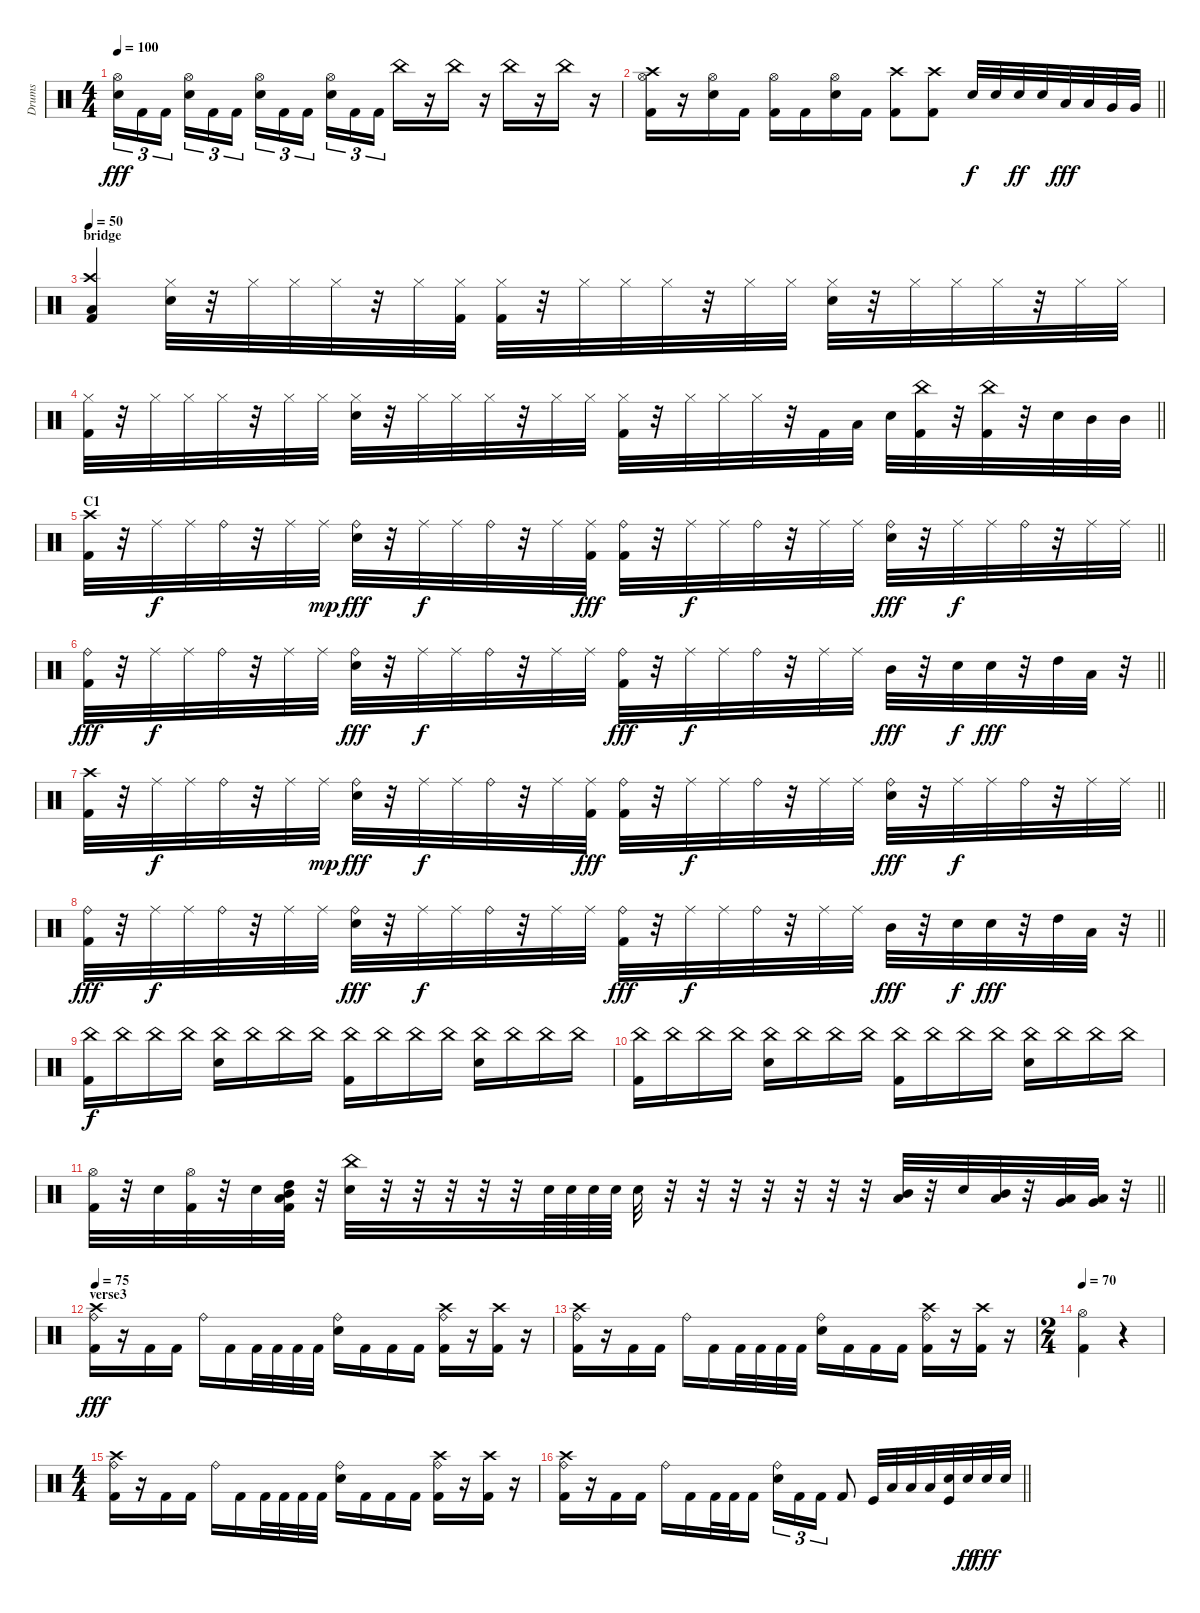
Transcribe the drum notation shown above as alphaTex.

\track ("Drums" "Drums") {instrument percussion}
\staff {score}
\articulation defaults
\ts (4 4)
\tempo 100
\clef neutral
\ks c
("Snare (hit) 2" "Hi-Hat (open)").16{tu (3 2) dy fff} "Kick (hit) 2".16{tu (3 2)} "Kick (hit) 2".16{tu (3 2) beam splitsecondary} ("Snare (hit) 2" "Hi-Hat (open)").16{tu (3 2)} "Kick (hit) 2".16{tu (3 2)} "Kick (hit) 2".16{tu (3 2)} ("Snare (hit) 2" "Hi-Hat (open)").16{tu (3 2)} "Kick (hit) 2".16{tu (3 2)} "Kick (hit) 2".16{tu (3 2) beam splitsecondary} ("Snare (hit) 2" "Hi-Hat (open)").16{tu (3 2)} "Kick (hit) 2".16{tu (3 2)} "Kick (hit) 2".16{tu (3 2)} "China (hit)".16 r.16 "China (hit)".16 r.16 "China (hit)".16 r.16 "China (hit)".16 r.16 |
\barLineRight lightlight
("Crash high (hit)" "Hi-Hat (open)" "Kick (hit) 2").16 r.16 ("Hi-Hat (open)" "Snare (hit) 2").16 "Kick (hit) 2".16 ("Hi-Hat (open)" "Kick (hit) 2").16 "Kick (hit) 2".16 ("Hi-Hat (open)" "Snare (hit) 2").16 "Kick (hit) 2".16 ("Crash high (hit)" "Kick (hit) 2").8 ("Crash high (hit)" "Kick (hit) 2").8 "Snare (hit) 2".32{dy f} "Snare (hit) 2".32 "Snare (hit) 2".32{dy ff} "Snare (hit) 2".32 "Low Tom (hit)".32{dy fff} "Low Tom (hit)".32 "Very Low Tom (hit)".32 "Very Low Tom (hit)".32 |
\section ("" "bridge")
\tempo 50
("Crash high (hit)" "Low Floor Tom (hit)" "Kick (hit) 2").4 ("Hi-Hat (closed)" "Snare (hit) 2").32 r.32 "Hi-Hat (closed)".32 "Hi-Hat (closed)".32 "Hi-Hat (closed)".32 r.32 "Hi-Hat (closed)".32 ("Hi-Hat (closed)" "Kick (hit) 2").32 ("Hi-Hat (closed)" "Kick (hit) 2").32 r.32 "Hi-Hat (closed)".32 "Hi-Hat (closed)".32 "Hi-Hat (closed)".32 r.32 "Hi-Hat (closed)".32 "Hi-Hat (closed)".32 ("Hi-Hat (closed)" "Snare (hit) 2").32 r.32 "Hi-Hat (closed)".32 "Hi-Hat (closed)".32 "Hi-Hat (closed)".32 r.32 "Hi-Hat (closed)".32 "Hi-Hat (closed)".32 |
\barLineRight lightlight
("Hi-Hat (closed)" "Kick (hit) 2").32 r.32 "Hi-Hat (closed)".32 "Hi-Hat (closed)".32 "Hi-Hat (closed)".32 r.32 "Hi-Hat (closed)".32 "Hi-Hat (closed)".32 ("Hi-Hat (closed)" "Snare (hit) 2").32 r.32 "Hi-Hat (closed)".32 "Hi-Hat (closed)".32 "Hi-Hat (closed)".32 r.32 "Hi-Hat (closed)".32 "Hi-Hat (closed)".32 ("Hi-Hat (closed)" "Kick (hit) 2").32 r.32 "Hi-Hat (closed)".32 "Hi-Hat (closed)".32 "Hi-Hat (closed)".32 r.32 "Kick (hit) 2".32 "Low Floor Tom (hit)".32 "Snare (hit) 2".32 ("China (hit)" "Kick (hit) 2").32 r.32 ("China (hit)" "Kick (hit) 2").32 r.32 "Snare (hit) 2".32 "Mid Tom (hit)".32 "Mid Tom (hit)".32 |
\section ("" "C1")
\barLineRight lightlight
("Crash high (hit)" "Kick (hit) 2").32 r.32 "Ride (middle)".32{dy f} "Ride (middle)".32 "Ride (bell)".32 r.32 "Ride (middle)".32 "Ride (middle)".32{dy mp} ("Ride (bell)" "Snare (hit) 2").32{dy fff} r.32 "Ride (middle)".32{dy f} "Ride (middle)".32 "Ride (bell)".32 r.32 "Ride (middle)".32 ("Ride (middle)" "Kick (hit) 2").32{dy fff} ("Ride (bell)" "Kick (hit) 2").32 r.32 "Ride (middle)".32{dy f} "Ride (middle)".32 "Ride (bell)".32 r.32 "Ride (middle)".32 "Ride (middle)".32 ("Ride (bell)" "Snare (hit) 2").32{dy fff} r.32 "Ride (middle)".32{dy f} "Ride (middle)".32 "Ride (bell)".32 r.32 "Ride (middle)".32 "Ride (middle)".32 |
\barLineRight lightlight
("Ride (bell)" "Kick (hit) 2").32{dy fff} r.32 "Ride (middle)".32{dy f} "Ride (middle)".32 "Ride (bell)".32 r.32 "Ride (middle)".32 "Ride (middle)".32 ("Ride (bell)" "Snare (hit) 2").32{dy fff} r.32 "Ride (middle)".32{dy f} "Ride (middle)".32 "Ride (bell)".32 r.32 "Ride (middle)".32 "Ride (middle)".32 ("Ride (bell)" "Kick (hit) 2").32{dy fff} r.32 "Ride (middle)".32{dy f} "Ride (middle)".32 "Ride (bell)".32 r.32 "Ride (middle)".32 "Ride (middle)".32 "Mid Tom (hit)".32{dy fff} r.32 "Snare (hit) 2".32{dy f} "Snare (hit) 2".32{dy fff} r.32 "High Tom (hit)".32 "Low Floor Tom (hit)".32 r.32 |
\barLineRight lightlight
("Crash high (hit)" "Kick (hit) 2").32 r.32 "Ride (middle)".32{dy f} "Ride (middle)".32 "Ride (bell)".32 r.32 "Ride (middle)".32 "Ride (middle)".32{dy mp} ("Ride (bell)" "Snare (hit) 2").32{dy fff} r.32 "Ride (middle)".32{dy f} "Ride (middle)".32 "Ride (bell)".32 r.32 "Ride (middle)".32 ("Ride (middle)" "Kick (hit) 2").32{dy fff} ("Ride (bell)" "Kick (hit) 2").32 r.32 "Ride (middle)".32{dy f} "Ride (middle)".32 "Ride (bell)".32 r.32 "Ride (middle)".32 "Ride (middle)".32 ("Ride (bell)" "Snare (hit) 2").32{dy fff} r.32 "Ride (middle)".32{dy f} "Ride (middle)".32 "Ride (bell)".32 r.32 "Ride (middle)".32 "Ride (middle)".32 |
\barLineRight lightlight
("Ride (bell)" "Kick (hit) 2").32{dy fff} r.32 "Ride (middle)".32{dy f} "Ride (middle)".32 "Ride (bell)".32 r.32 "Ride (middle)".32 "Ride (middle)".32 ("Ride (bell)" "Snare (hit) 2").32{dy fff} r.32 "Ride (middle)".32{dy f} "Ride (middle)".32 "Ride (bell)".32 r.32 "Ride (middle)".32 "Ride (middle)".32 ("Ride (bell)" "Kick (hit) 2").32{dy fff} r.32 "Ride (middle)".32{dy f} "Ride (middle)".32 "Ride (bell)".32 r.32 "Ride (middle)".32 "Ride (middle)".32 "Mid Tom (hit)".32{dy fff} r.32 "Snare (hit) 2".32{dy f} "Snare (hit) 2".32{dy fff} r.32 "High Tom (hit)".32 "Low Floor Tom (hit)".32 r.32 |
("China (hit)" "Kick (hit) 2").16{dy f} "China (hit)".16 "China (hit)".16 "China (hit)".16 ("China (hit)" "Snare (hit) 2").16 "China (hit)".16 "China (hit)".16 "China (hit)".16 ("China (hit)" "Kick (hit) 2").16 "China (hit)".16 "China (hit)".16 "China (hit)".16 ("China (hit)" "Snare (hit) 2").16 "China (hit)".16 "China (hit)".16 "China (hit)".16 |
("China (hit)" "Kick (hit) 2").16 "China (hit)".16 "China (hit)".16 "China (hit)".16 ("China (hit)" "Snare (hit) 2").16 "China (hit)".16 "China (hit)".16 "China (hit)".16 ("China (hit)" "Kick (hit) 2").16 "China (hit)".16 "China (hit)".16 "China (hit)".16 ("China (hit)" "Snare (hit) 2").16 "China (hit)".16 "China (hit)".16 "China (hit)".16 |
\barLineRight lightlight
("Hi-Hat (open)" "Kick (hit) 2").32 r.32 "Snare (hit) 2".32 ("Hi-Hat (open)" "Kick (hit) 2").32 r.32 "Snare (hit) 2".32 ("High Tom (hit)" "Mid Tom (hit)" "Low Floor Tom (hit)" "Kick (hit) 2").32 r.32 ("China (hit)" "Snare (hit) 2").32 r.32 r.32 r.32 r.32 r.32 "Snare (hit) 2".64 "Snare (hit) 2".64 "Snare (hit) 2".64 "Snare (hit) 2".64 "Snare (hit) 2".32 r.32 r.32 r.32 r.32 r.32 r.32 r.32 ("Mid Tom (hit)" "Low Tom (hit)").32 r.32 "Snare (hit) 2".32 ("Mid Tom (hit)" "Low Tom (hit)").32 r.32 ("Very Low Tom (hit)" "Low Floor Tom (hit)").32 ("Very Low Tom (hit)" "Low Floor Tom (hit)").32 r.32 |
\section ("" "verse3")
\tempo 75
("Crash high (hit)" "Ride (bell)" "Kick (hit) 2").16{dy fff} r.16 "Kick (hit) 2".16 "Kick (hit) 2".16 "Ride (bell)".16 "Kick (hit) 2".16 "Kick (hit) 2".32 "Kick (hit) 2".32 "Kick (hit) 2".32 "Kick (hit) 2".32 ("Ride (bell)" "Snare (hit) 2").16 "Kick (hit) 2".16 "Kick (hit) 2".16 "Kick (hit) 2".16 ("Crash high (hit)" "Ride (bell)" "Kick (hit) 2").16 r.16 ("Crash high (hit)" "Kick (hit) 2").16 r.16 |
("Crash high (hit)" "Ride (bell)" "Kick (hit) 2").16 r.16 "Kick (hit) 2".16 "Kick (hit) 2".16 "Ride (bell)".16 "Kick (hit) 2".16 "Kick (hit) 2".32 "Kick (hit) 2".32 "Kick (hit) 2".32 "Kick (hit) 2".32 ("Ride (bell)" "Snare (hit) 2").16 "Kick (hit) 2".16 "Kick (hit) 2".16 "Kick (hit) 2".16 ("Crash high (hit)" "Ride (bell)" "Kick (hit) 2").16 r.16 ("Crash high (hit)" "Kick (hit) 2").16 r.16 |
\ts (2 4)
\tempo 70
("Hi-Hat (open)" "Kick (hit) 2").4 r.4 |
\ts (4 4)
("Crash high (hit)" "Ride (bell)" "Kick (hit) 2").16 r.16 "Kick (hit) 2".16 "Kick (hit) 2".16 "Ride (bell)".16 "Kick (hit) 2".16 "Kick (hit) 2".32 "Kick (hit) 2".32 "Kick (hit) 2".32 "Kick (hit) 2".32 ("Ride (bell)" "Snare (hit) 2").16 "Kick (hit) 2".16 "Kick (hit) 2".16 "Kick (hit) 2".16 ("Crash high (hit)" "Ride (bell)" "Kick (hit) 2").16 r.16 ("Crash high (hit)" "Kick (hit) 2").16 r.16 |
\barLineRight lightlight
("Crash high (hit)" "Ride (bell)" "Kick (hit) 2").16 r.16 "Kick (hit) 2".16 "Kick (hit) 2".16 "Ride (bell)".16 "Kick (hit) 2".16 "Kick (hit) 2".32 "Kick (hit) 2".32 "Kick (hit) 2".16 ("Ride (bell)" "Snare (hit) 2").16{tu (3 2)} "Kick (hit) 2".16{tu (3 2)} "Kick (hit) 2".16{tu (3 2)} "Kick (hit) 2".8 "Kick (hit)".32 "Low Tom (hit)".32 "Low Tom (hit)".32 "Low Tom (hit)".32 ("Snare (hit) 2" "Kick (hit)").32 "Snare (hit) 2".32{dy ff} "Snare (hit) 2".32{dy fff} "Snare (hit) 2".32
